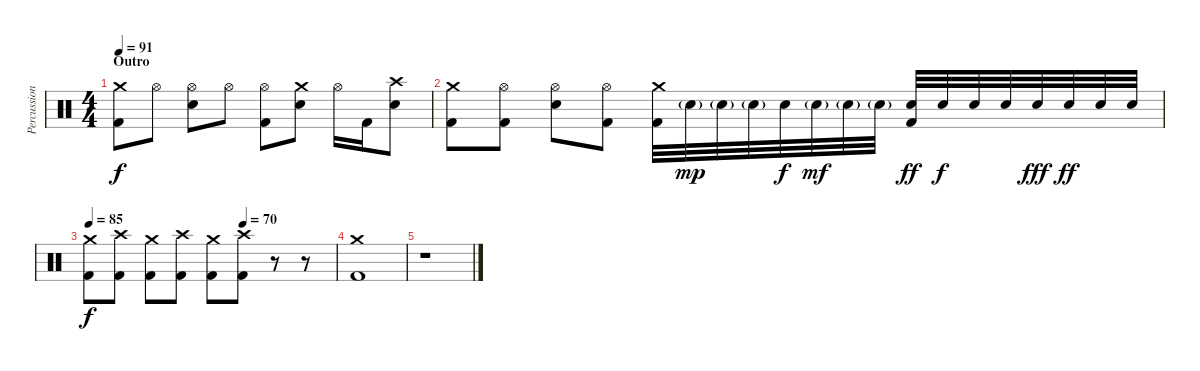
\track ("Percussion" "Percussion") {instrument percussion}
\staff {score}
\articulation defaults
\ts (4 4)
\section ("" "Outro")
\tempo 91
\clef neutral
\ks c
("Crash medium (hit)" "Kick (hit) 2").8{dy f} "Hi-Hat (open)".8 ("Hi-Hat (open)" "Electric Snare (hit)").8 "Hi-Hat (open)".8 ("Hi-Hat (open)" "Kick (hit) 2").8 ("Crash medium (hit)" "Electric Snare (hit)").8 "Hi-Hat (open)".16 "Kick (hit) 2".16 ("Crash high (hit)" "Electric Snare (hit)").8 |
("Crash medium (hit)" "Kick (hit) 2").8 ("Hi-Hat (open)" "Kick (hit) 2").8 ("Hi-Hat (open)" "Electric Snare (hit)").8 ("Hi-Hat (open)" "Kick (hit) 2").8 ("Crash medium (hit)" "Kick (hit) 2").32 "Electric Snare (hit)"{g}.32{dy mp} "Electric Snare (hit)"{g}.32 "Electric Snare (hit)"{g}.32 "Electric Snare (hit)".32{dy f} "Electric Snare (hit)"{g}.32{dy mf} "Electric Snare (hit)"{g}.32 "Electric Snare (hit)"{g}.32 ("Electric Snare (hit)" "Kick (hit) 2").32{dy ff} "Electric Snare (hit)".32{dy f} "Electric Snare (hit)".32 "Electric Snare (hit)".32 "Electric Snare (hit)".32{dy fff} "Electric Snare (hit)".32{dy ff} "Electric Snare (hit)".32 "Electric Snare (hit)".32 |
\tempo 85
\tempo (70 0.625)
("Crash medium (hit)" "Kick (hit) 2").8{dy f} ("Crash high (hit)" "Kick (hit) 2").8 ("Crash medium (hit)" "Kick (hit) 2").8 ("Crash high (hit)" "Kick (hit) 2").8 ("Crash medium (hit)" "Kick (hit) 2").8 ("Crash high (hit)" "Kick (hit) 2").8 r.8 r.8 |
("Crash medium (hit)" "Kick (hit) 2").1{volume 0} |
r.1
